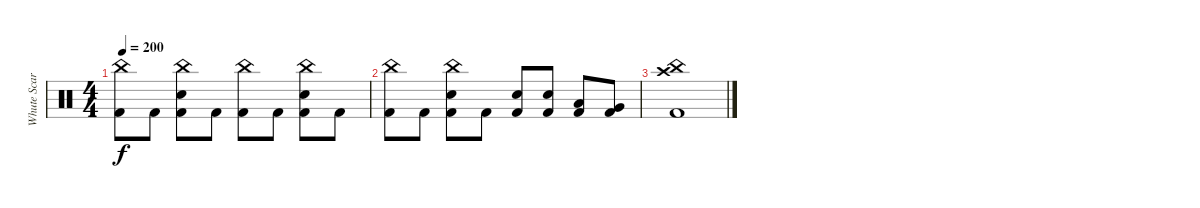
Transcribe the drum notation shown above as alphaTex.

\track ("Whute Scar" "Whute Scar") {instrument percussion}
\staff {score}
\articulation defaults
\ts (4 4)
\tempo 200
\clef neutral
\ks c
("China (hit)" "Kick (hit) 2").8{dy f} "Kick (hit) 2".8 ("China (hit)" "Snare (hit) 2" "Kick (hit) 2").8 "Kick (hit) 2".8 ("China (hit)" "Kick (hit) 2").8 "Kick (hit) 2".8 ("China (hit)" "Snare (hit) 2" "Kick (hit) 2").8 "Kick (hit) 2".8 |
("China (hit)" "Kick (hit) 2").8 "Kick (hit) 2".8 ("China (hit)" "Snare (hit) 2" "Kick (hit) 2").8 "Kick (hit) 2".8 ("Snare (hit) 2" "Kick (hit) 2").8 ("Snare (hit) 2" "Kick (hit) 2").8 ("Low Tom (hit)" "Kick (hit) 2").8 ("Very Low Tom (hit)" "Kick (hit) 2").8 |
("China (hit)" "Crash high (hit)" "Kick (hit) 2").1
